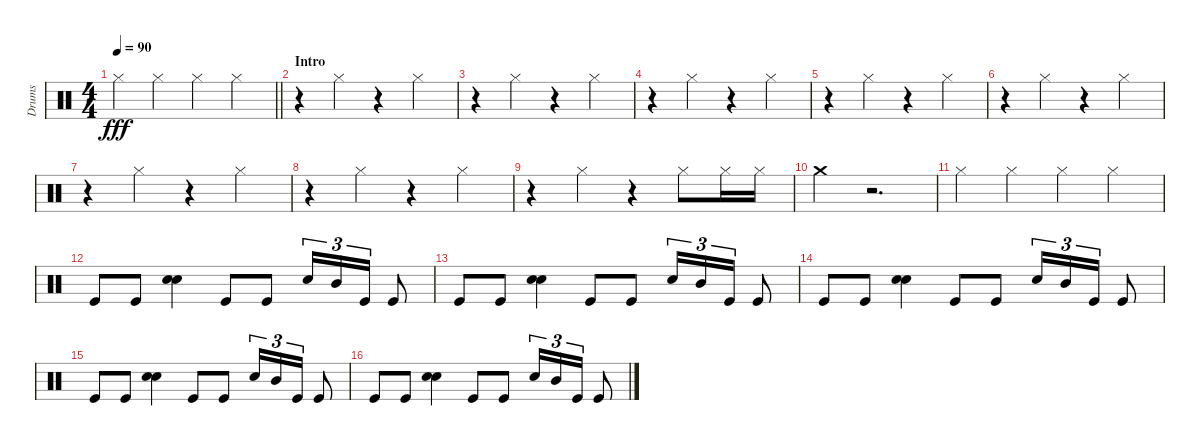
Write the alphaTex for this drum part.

\track ("Drums" "Drums") {instrument percussion}
\staff {score}
\articulation defaults
\ts (4 4)
\tempo 90
\clef neutral
\barLineRight lightlight
\ks c "Hi-Hat (closed)".4{dy fff} "Hi-Hat (closed)".4 "Hi-Hat (closed)".4 "Hi-Hat (closed)".4
|
\section ("" "Intro")
r.4 "Hi-Hat (closed)".4 r.4 "Hi-Hat (closed)".4 |
r.4 "Hi-Hat (closed)".4 r.4 "Hi-Hat (closed)".4 |
r.4 "Hi-Hat (closed)".4 r.4 "Hi-Hat (closed)".4 |
r.4 "Hi-Hat (closed)".4 r.4 "Hi-Hat (closed)".4 |
r.4 "Hi-Hat (closed)".4 r.4 "Hi-Hat (closed)".4 |
r.4 "Hi-Hat (closed)".4 r.4 "Hi-Hat (closed)".4 |
r.4 "Hi-Hat (closed)".4 r.4 "Hi-Hat (closed)".4 |
r.4 "Hi-Hat (closed)".4 r.4 "Hi-Hat (closed)".8 "Hi-Hat (closed)".16 "Hi-Hat (closed)".16 |
"Crash medium (hit)".4 r.2{d} |
"Hi-Hat (closed)".4 "Hi-Hat (closed)".4 "Hi-Hat (closed)".4 "Hi-Hat (closed)".4 |
"Kick (hit)".8 "Kick (hit)".8 ("Snare (hit) 2" "Snare (hit) 2").4 "Kick (hit)".8 "Kick (hit)".8 "Snare (hit) 2".16{tu (3 2)} "Mid Tom (hit)".16{tu (3 2)} "Kick (hit)".16{tu (3 2)} "Kick (hit)".8 |
"Kick (hit)".8 "Kick (hit)".8 ("Snare (hit) 2" "Snare (hit) 2").4 "Kick (hit)".8 "Kick (hit)".8 "Snare (hit) 2".16{tu (3 2)} "Mid Tom (hit)".16{tu (3 2)} "Kick (hit)".16{tu (3 2)} "Kick (hit)".8 |
"Kick (hit)".8 "Kick (hit)".8 ("Snare (hit) 2" "Snare (hit) 2").4 "Kick (hit)".8 "Kick (hit)".8 "Snare (hit) 2".16{tu (3 2)} "Mid Tom (hit)".16{tu (3 2)} "Kick (hit)".16{tu (3 2)} "Kick (hit)".8 |
"Kick (hit)".8 "Kick (hit)".8 ("Snare (hit) 2" "Snare (hit) 2").4 "Kick (hit)".8 "Kick (hit)".8 "Snare (hit) 2".16{tu (3 2)} "Mid Tom (hit)".16{tu (3 2)} "Kick (hit)".16{tu (3 2)} "Kick (hit)".8 |
"Kick (hit)".8 "Kick (hit)".8 ("Snare (hit) 2" "Snare (hit) 2").4 "Kick (hit)".8 "Kick (hit)".8 "Snare (hit) 2".16{tu (3 2)} "Mid Tom (hit)".16{tu (3 2)} "Kick (hit)".16{tu (3 2)} "Kick (hit)".8
